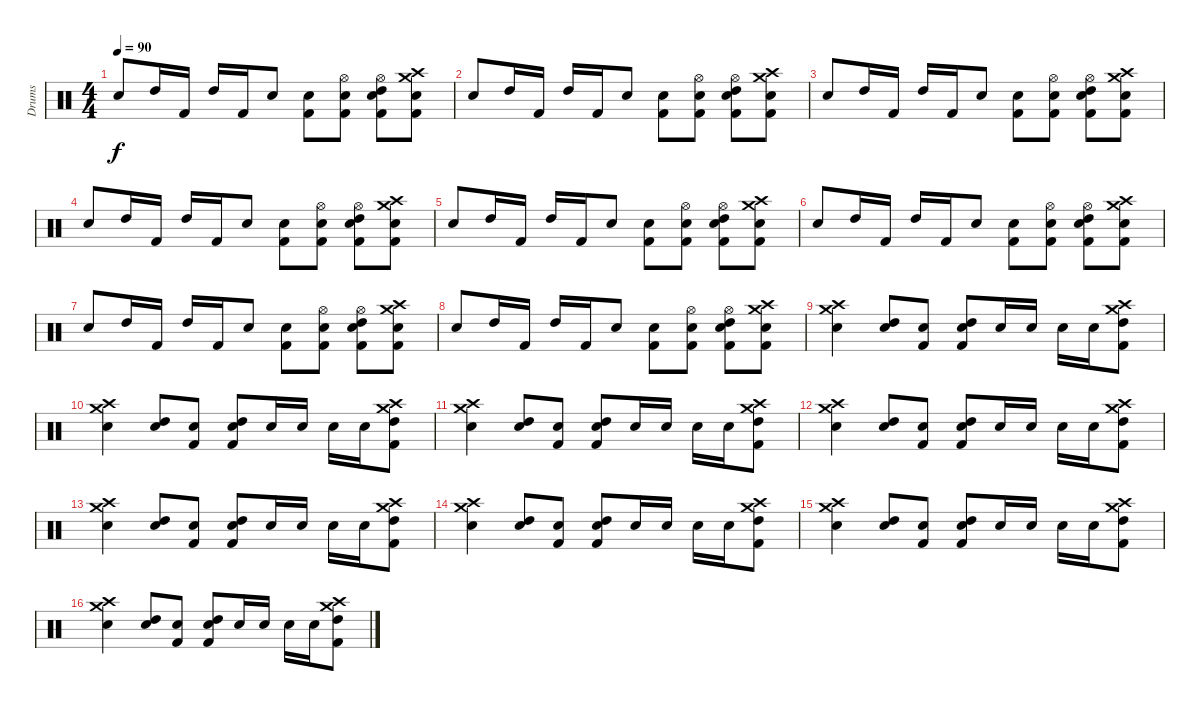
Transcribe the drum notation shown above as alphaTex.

\track ("Drums" "Drums") {instrument percussion}
\staff {score}
\articulation defaults
\ts (4 4)
\tempo 90
\clef neutral
\ks c "Electric Snare (hit)".8{dy f} "High Tom (hit)".16 "Kick (hit) 2".16 "High Tom (hit)".16 "Kick (hit) 2".16 "Electric Snare (hit)".8
("Electric Snare (hit)" "Kick (hit) 2").8 ("Hi-Hat (open)" "Kick (hit) 2" "Electric Snare (hit)").8 ("Electric Snare (hit)" "High Tom (hit)" "Kick (hit) 2" "Hi-Hat (open)").8 ("Crash medium (hit)" "Crash high (hit)" "Kick (hit) 2" "Electric Snare (hit)").8 |
"Electric Snare (hit)".8 "High Tom (hit)".16 "Kick (hit) 2".16 "High Tom (hit)".16 "Kick (hit) 2".16 "Electric Snare (hit)".8 ("Electric Snare (hit)" "Kick (hit) 2").8 ("Hi-Hat (open)" "Kick (hit) 2" "Electric Snare (hit)").8 ("Electric Snare (hit)" "High Tom (hit)" "Kick (hit) 2" "Hi-Hat (open)").8 ("Crash medium (hit)" "Crash high (hit)" "Kick (hit) 2" "Electric Snare (hit)").8 |
"Electric Snare (hit)".8 "High Tom (hit)".16 "Kick (hit) 2".16 "High Tom (hit)".16 "Kick (hit) 2".16 "Electric Snare (hit)".8 ("Electric Snare (hit)" "Kick (hit) 2").8 ("Hi-Hat (open)" "Kick (hit) 2" "Electric Snare (hit)").8 ("Electric Snare (hit)" "High Tom (hit)" "Kick (hit) 2" "Hi-Hat (open)").8 ("Crash medium (hit)" "Crash high (hit)" "Kick (hit) 2" "Electric Snare (hit)").8 |
"Electric Snare (hit)".8 "High Tom (hit)".16 "Kick (hit) 2".16 "High Tom (hit)".16 "Kick (hit) 2".16 "Electric Snare (hit)".8 ("Electric Snare (hit)" "Kick (hit) 2").8 ("Hi-Hat (open)" "Kick (hit) 2" "Electric Snare (hit)").8 ("Electric Snare (hit)" "High Tom (hit)" "Kick (hit) 2" "Hi-Hat (open)").8 ("Crash medium (hit)" "Crash high (hit)" "Kick (hit) 2" "Electric Snare (hit)").8 |
"Electric Snare (hit)".8 "High Tom (hit)".16 "Kick (hit) 2".16 "High Tom (hit)".16 "Kick (hit) 2".16 "Electric Snare (hit)".8 ("Electric Snare (hit)" "Kick (hit) 2").8 ("Hi-Hat (open)" "Kick (hit) 2" "Electric Snare (hit)").8 ("Electric Snare (hit)" "High Tom (hit)" "Kick (hit) 2" "Hi-Hat (open)").8 ("Crash medium (hit)" "Crash high (hit)" "Kick (hit) 2" "Electric Snare (hit)").8 |
"Electric Snare (hit)".8 "High Tom (hit)".16 "Kick (hit) 2".16 "High Tom (hit)".16 "Kick (hit) 2".16 "Electric Snare (hit)".8 ("Electric Snare (hit)" "Kick (hit) 2").8 ("Hi-Hat (open)" "Kick (hit) 2" "Electric Snare (hit)").8 ("Electric Snare (hit)" "High Tom (hit)" "Kick (hit) 2" "Hi-Hat (open)").8 ("Crash medium (hit)" "Crash high (hit)" "Kick (hit) 2" "Electric Snare (hit)").8 |
"Electric Snare (hit)".8 "High Tom (hit)".16 "Kick (hit) 2".16 "High Tom (hit)".16 "Kick (hit) 2".16 "Electric Snare (hit)".8 ("Electric Snare (hit)" "Kick (hit) 2").8 ("Hi-Hat (open)" "Kick (hit) 2" "Electric Snare (hit)").8 ("Electric Snare (hit)" "High Tom (hit)" "Kick (hit) 2" "Hi-Hat (open)").8 ("Crash medium (hit)" "Crash high (hit)" "Kick (hit) 2" "Electric Snare (hit)").8 |
"Electric Snare (hit)".8 "High Tom (hit)".16 "Kick (hit) 2".16 "High Tom (hit)".16 "Kick (hit) 2".16 "Electric Snare (hit)".8 ("Electric Snare (hit)" "Kick (hit) 2").8 ("Hi-Hat (open)" "Kick (hit) 2" "Electric Snare (hit)").8 ("Electric Snare (hit)" "High Tom (hit)" "Kick (hit) 2" "Hi-Hat (open)").8 ("Crash medium (hit)" "Crash high (hit)" "Kick (hit) 2" "Electric Snare (hit)").8 |
("Crash high (hit)" "Crash medium (hit)" "Electric Snare (hit)").4 ("High Tom (hit)" "Electric Snare (hit)").8 ("Electric Snare (hit)" "Kick (hit) 2").8 ("High Tom (hit)" "Electric Snare (hit)" "Kick (hit) 2").8 "Electric Snare (hit)".16 "Electric Snare (hit)".16 "Electric Snare (hit)".16 "Electric Snare (hit)".16 ("Crash high (hit)" "Crash medium (hit)" "Kick (hit) 2" "High Tom (hit)").8 |
("Crash high (hit)" "Crash medium (hit)" "Electric Snare (hit)").4 ("High Tom (hit)" "Electric Snare (hit)").8 ("Electric Snare (hit)" "Kick (hit) 2").8 ("High Tom (hit)" "Electric Snare (hit)" "Kick (hit) 2").8 "Electric Snare (hit)".16 "Electric Snare (hit)".16 "Electric Snare (hit)".16 "Electric Snare (hit)".16 ("Crash high (hit)" "Crash medium (hit)" "Kick (hit) 2" "High Tom (hit)").8 |
("Crash high (hit)" "Crash medium (hit)" "Electric Snare (hit)").4 ("High Tom (hit)" "Electric Snare (hit)").8 ("Electric Snare (hit)" "Kick (hit) 2").8 ("High Tom (hit)" "Electric Snare (hit)" "Kick (hit) 2").8 "Electric Snare (hit)".16 "Electric Snare (hit)".16 "Electric Snare (hit)".16 "Electric Snare (hit)".16 ("Crash high (hit)" "Crash medium (hit)" "Kick (hit) 2" "High Tom (hit)").8 |
("Crash high (hit)" "Crash medium (hit)" "Electric Snare (hit)").4 ("High Tom (hit)" "Electric Snare (hit)").8 ("Electric Snare (hit)" "Kick (hit) 2").8 ("High Tom (hit)" "Electric Snare (hit)" "Kick (hit) 2").8 "Electric Snare (hit)".16 "Electric Snare (hit)".16 "Electric Snare (hit)".16 "Electric Snare (hit)".16 ("Crash high (hit)" "Crash medium (hit)" "Kick (hit) 2" "High Tom (hit)").8 |
("Crash high (hit)" "Crash medium (hit)" "Electric Snare (hit)").4 ("High Tom (hit)" "Electric Snare (hit)").8 ("Electric Snare (hit)" "Kick (hit) 2").8 ("High Tom (hit)" "Electric Snare (hit)" "Kick (hit) 2").8 "Electric Snare (hit)".16 "Electric Snare (hit)".16 "Electric Snare (hit)".16 "Electric Snare (hit)".16 ("Crash high (hit)" "Crash medium (hit)" "Kick (hit) 2" "High Tom (hit)").8 |
("Crash high (hit)" "Crash medium (hit)" "Electric Snare (hit)").4 ("High Tom (hit)" "Electric Snare (hit)").8 ("Electric Snare (hit)" "Kick (hit) 2").8 ("High Tom (hit)" "Electric Snare (hit)" "Kick (hit) 2").8 "Electric Snare (hit)".16 "Electric Snare (hit)".16 "Electric Snare (hit)".16 "Electric Snare (hit)".16 ("Crash high (hit)" "Crash medium (hit)" "Kick (hit) 2" "High Tom (hit)").8 |
("Crash high (hit)" "Crash medium (hit)" "Electric Snare (hit)").4 ("High Tom (hit)" "Electric Snare (hit)").8 ("Electric Snare (hit)" "Kick (hit) 2").8 ("High Tom (hit)" "Electric Snare (hit)" "Kick (hit) 2").8 "Electric Snare (hit)".16 "Electric Snare (hit)".16 "Electric Snare (hit)".16 "Electric Snare (hit)".16 ("Crash high (hit)" "Crash medium (hit)" "Kick (hit) 2" "High Tom (hit)").8 |
("Crash high (hit)" "Crash medium (hit)" "Electric Snare (hit)").4 ("High Tom (hit)" "Electric Snare (hit)").8 ("Electric Snare (hit)" "Kick (hit) 2").8 ("High Tom (hit)" "Electric Snare (hit)" "Kick (hit) 2").8 "Electric Snare (hit)".16 "Electric Snare (hit)".16 "Electric Snare (hit)".16 "Electric Snare (hit)".16 ("Crash high (hit)" "Crash medium (hit)" "Kick (hit) 2" "High Tom (hit)").8
